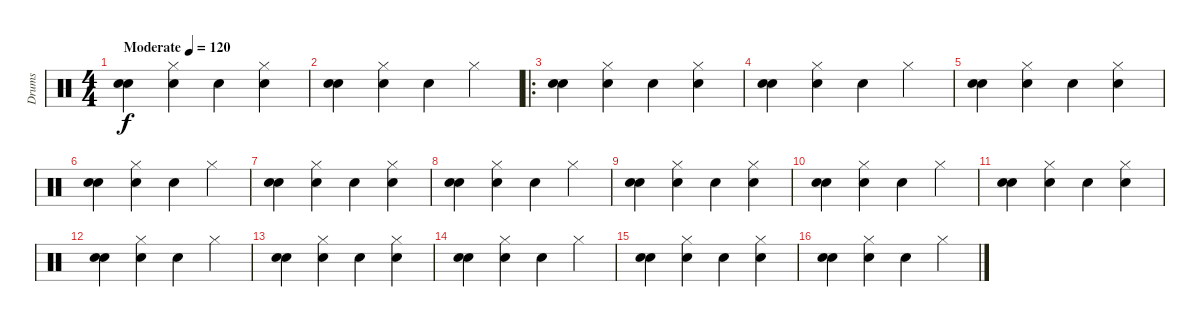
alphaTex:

\track ("Drums" "Drums") {instrument percussion}
\staff {score}
\articulation defaults
\ts (4 4)
\tempo (120 "Moderate")
\clef neutral
\ks c
("Electric Snare (hit)" "Snare (hit) 2").4{dy f} ("Electric Snare (hit)" "Hi-Hat (closed)").4 "Electric Snare (hit)".4 ("Electric Snare (hit)" "Hi-Hat (closed)").4 |
("Electric Snare (hit)" "Snare (hit) 2").4 ("Electric Snare (hit)" "Hi-Hat (closed)").4 "Electric Snare (hit)".4 "Hi-Hat (closed)".4 |
\ro
("Electric Snare (hit)" "Snare (hit) 2").4 ("Electric Snare (hit)" "Hi-Hat (closed)").4 "Electric Snare (hit)".4 ("Electric Snare (hit)" "Hi-Hat (closed)").4 |
("Electric Snare (hit)" "Snare (hit) 2").4 ("Electric Snare (hit)" "Hi-Hat (closed)").4 "Electric Snare (hit)".4 "Hi-Hat (closed)".4 |
("Electric Snare (hit)" "Snare (hit) 2").4 ("Electric Snare (hit)" "Hi-Hat (closed)").4 "Electric Snare (hit)".4 ("Electric Snare (hit)" "Hi-Hat (closed)").4 |
("Electric Snare (hit)" "Snare (hit) 2").4 ("Electric Snare (hit)" "Hi-Hat (closed)").4 "Electric Snare (hit)".4 "Hi-Hat (closed)".4 |
("Electric Snare (hit)" "Snare (hit) 2").4 ("Electric Snare (hit)" "Hi-Hat (closed)").4 "Electric Snare (hit)".4 ("Electric Snare (hit)" "Hi-Hat (closed)").4 |
("Electric Snare (hit)" "Snare (hit) 2").4 ("Electric Snare (hit)" "Hi-Hat (closed)").4 "Electric Snare (hit)".4 "Hi-Hat (closed)".4 |
("Electric Snare (hit)" "Snare (hit) 2").4 ("Electric Snare (hit)" "Hi-Hat (closed)").4 "Electric Snare (hit)".4 ("Electric Snare (hit)" "Hi-Hat (closed)").4 |
("Electric Snare (hit)" "Snare (hit) 2").4 ("Electric Snare (hit)" "Hi-Hat (closed)").4 "Electric Snare (hit)".4 "Hi-Hat (closed)".4 |
("Electric Snare (hit)" "Snare (hit) 2").4 ("Electric Snare (hit)" "Hi-Hat (closed)").4 "Electric Snare (hit)".4 ("Electric Snare (hit)" "Hi-Hat (closed)").4 |
("Electric Snare (hit)" "Snare (hit) 2").4 ("Electric Snare (hit)" "Hi-Hat (closed)").4 "Electric Snare (hit)".4 "Hi-Hat (closed)".4 |
("Electric Snare (hit)" "Snare (hit) 2").4 ("Electric Snare (hit)" "Hi-Hat (closed)").4 "Electric Snare (hit)".4 ("Electric Snare (hit)" "Hi-Hat (closed)").4 |
("Electric Snare (hit)" "Snare (hit) 2").4 ("Electric Snare (hit)" "Hi-Hat (closed)").4 "Electric Snare (hit)".4 "Hi-Hat (closed)".4 |
("Electric Snare (hit)" "Snare (hit) 2").4 ("Electric Snare (hit)" "Hi-Hat (closed)").4 "Electric Snare (hit)".4 ("Electric Snare (hit)" "Hi-Hat (closed)").4 |
("Electric Snare (hit)" "Snare (hit) 2").4 ("Electric Snare (hit)" "Hi-Hat (closed)").4 "Electric Snare (hit)".4 "Hi-Hat (closed)".4
